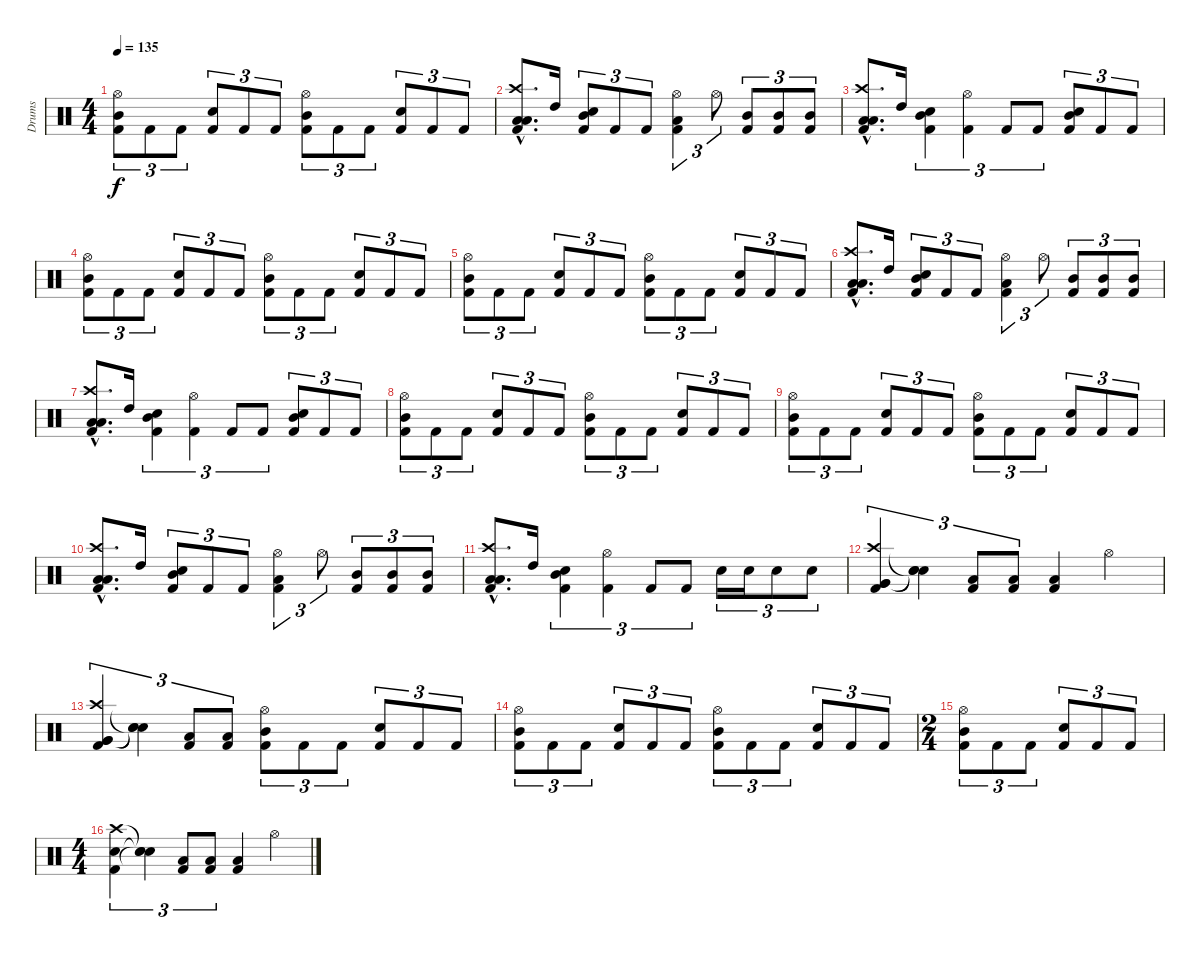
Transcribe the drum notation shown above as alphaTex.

\track ("Drums" "Drums") {instrument percussion}
\staff {score}
\articulation defaults
\ts (4 4)
\tempo 135
\clef neutral
\ks c
("Hi-Hat (open)" "Mid Tom (hit)" "Kick (hit) 2").8{tu (3 2) dy f} "Kick (hit) 2".8{tu (3 2)} "Kick (hit) 2".8{tu (3 2)} ("Snare (hit) 2" "Kick (hit) 2").8{tu (3 2)} "Kick (hit) 2".8{tu (3 2)} "Kick (hit) 2".8{tu (3 2)} ("Hi-Hat (open)" "Mid Tom (hit)" "Kick (hit) 2").8{tu (3 2)} "Kick (hit) 2".8{tu (3 2)} "Kick (hit) 2".8{tu (3 2)} ("Snare (hit) 2" "Kick (hit) 2").8{tu (3 2)} "Kick (hit) 2".8{tu (3 2)} "Kick (hit) 2".8{tu (3 2)} |
("Crash high (hit)"{hac} "Low Tom (hit)"{hac} "Low Tom (hit)"{hac} "Kick (hit) 2"{hac}).8{d} "High Tom (hit)".16 ("Mid Tom (hit)" "Snare (hit) 2" "Kick (hit) 2").8{tu (3 2)} "Kick (hit) 2".8{tu (3 2)} "Kick (hit) 2".8{tu (3 2)} ("Hi-Hat (open)" "Low Tom (hit)" "Kick (hit) 2").4{tu (3 2)} "Hi-Hat (open)".8{tu (3 2)} ("Mid Tom (hit)" "Kick (hit) 2").8{tu (3 2)} ("Mid Tom (hit)" "Kick (hit) 2").8{tu (3 2)} ("Mid Tom (hit)" "Kick (hit) 2").8{tu (3 2)} |
("Crash high (hit)"{hac} "Low Tom (hit)"{hac} "Low Tom (hit)"{hac} "Kick (hit) 2"{hac}).8{d} "High Tom (hit)".16 ("Mid Tom (hit)" "Snare (hit) 2" "Kick (hit) 2").4{tu (3 2)} ("Hi-Hat (open)" "Kick (hit) 2").4{tu (3 2)} "Kick (hit) 2".8{tu (3 2)} "Kick (hit) 2".8{tu (3 2)} ("Mid Tom (hit)" "Snare (hit) 2" "Kick (hit) 2").8{tu (3 2)} "Kick (hit) 2".8{tu (3 2)} "Kick (hit) 2".8{tu (3 2)} |
("Hi-Hat (open)" "Mid Tom (hit)" "Kick (hit) 2").8{tu (3 2)} "Kick (hit) 2".8{tu (3 2)} "Kick (hit) 2".8{tu (3 2)} ("Snare (hit) 2" "Kick (hit) 2").8{tu (3 2)} "Kick (hit) 2".8{tu (3 2)} "Kick (hit) 2".8{tu (3 2)} ("Hi-Hat (open)" "Mid Tom (hit)" "Kick (hit) 2").8{tu (3 2)} "Kick (hit) 2".8{tu (3 2)} "Kick (hit) 2".8{tu (3 2)} ("Snare (hit) 2" "Kick (hit) 2").8{tu (3 2)} "Kick (hit) 2".8{tu (3 2)} "Kick (hit) 2".8{tu (3 2)} |
("Hi-Hat (open)" "Mid Tom (hit)" "Kick (hit) 2").8{tu (3 2)} "Kick (hit) 2".8{tu (3 2)} "Kick (hit) 2".8{tu (3 2)} ("Snare (hit) 2" "Kick (hit) 2").8{tu (3 2)} "Kick (hit) 2".8{tu (3 2)} "Kick (hit) 2".8{tu (3 2)} ("Hi-Hat (open)" "Mid Tom (hit)" "Kick (hit) 2").8{tu (3 2)} "Kick (hit) 2".8{tu (3 2)} "Kick (hit) 2".8{tu (3 2)} ("Snare (hit) 2" "Kick (hit) 2").8{tu (3 2)} "Kick (hit) 2".8{tu (3 2)} "Kick (hit) 2".8{tu (3 2)} |
("Crash high (hit)"{hac} "Low Tom (hit)"{hac} "Low Tom (hit)"{hac} "Kick (hit) 2"{hac}).8{d} "High Tom (hit)".16 ("Mid Tom (hit)" "Snare (hit) 2" "Kick (hit) 2").8{tu (3 2)} "Kick (hit) 2".8{tu (3 2)} "Kick (hit) 2".8{tu (3 2)} ("Hi-Hat (open)" "Low Tom (hit)" "Kick (hit) 2").4{tu (3 2)} "Hi-Hat (open)".8{tu (3 2)} ("Mid Tom (hit)" "Kick (hit) 2").8{tu (3 2)} ("Mid Tom (hit)" "Kick (hit) 2").8{tu (3 2)} ("Mid Tom (hit)" "Kick (hit) 2").8{tu (3 2)} |
("Crash high (hit)"{hac} "Low Tom (hit)"{hac} "Low Tom (hit)"{hac} "Kick (hit) 2"{hac}).8{d} "High Tom (hit)".16 ("Mid Tom (hit)" "Snare (hit) 2" "Kick (hit) 2").4{tu (3 2)} ("Hi-Hat (open)" "Kick (hit) 2").4{tu (3 2)} "Kick (hit) 2".8{tu (3 2)} "Kick (hit) 2".8{tu (3 2)} ("Mid Tom (hit)" "Snare (hit) 2" "Kick (hit) 2").8{tu (3 2)} "Kick (hit) 2".8{tu (3 2)} "Kick (hit) 2".8{tu (3 2)} |
("Hi-Hat (open)" "Mid Tom (hit)" "Kick (hit) 2").8{tu (3 2)} "Kick (hit) 2".8{tu (3 2)} "Kick (hit) 2".8{tu (3 2)} ("Snare (hit) 2" "Kick (hit) 2").8{tu (3 2)} "Kick (hit) 2".8{tu (3 2)} "Kick (hit) 2".8{tu (3 2)} ("Hi-Hat (open)" "Mid Tom (hit)" "Kick (hit) 2").8{tu (3 2)} "Kick (hit) 2".8{tu (3 2)} "Kick (hit) 2".8{tu (3 2)} ("Snare (hit) 2" "Kick (hit) 2").8{tu (3 2)} "Kick (hit) 2".8{tu (3 2)} "Kick (hit) 2".8{tu (3 2)} |
("Hi-Hat (open)" "Mid Tom (hit)" "Kick (hit) 2").8{tu (3 2)} "Kick (hit) 2".8{tu (3 2)} "Kick (hit) 2".8{tu (3 2)} ("Snare (hit) 2" "Kick (hit) 2").8{tu (3 2)} "Kick (hit) 2".8{tu (3 2)} "Kick (hit) 2".8{tu (3 2)} ("Hi-Hat (open)" "Mid Tom (hit)" "Kick (hit) 2").8{tu (3 2)} "Kick (hit) 2".8{tu (3 2)} "Kick (hit) 2".8{tu (3 2)} ("Snare (hit) 2" "Kick (hit) 2").8{tu (3 2)} "Kick (hit) 2".8{tu (3 2)} "Kick (hit) 2".8{tu (3 2)} |
("Crash high (hit)"{hac} "Low Tom (hit)"{hac} "Low Tom (hit)"{hac} "Kick (hit) 2"{hac}).8{d} "High Tom (hit)".16 ("Mid Tom (hit)" "Snare (hit) 2" "Kick (hit) 2").8{tu (3 2)} "Kick (hit) 2".8{tu (3 2)} "Kick (hit) 2".8{tu (3 2)} ("Hi-Hat (open)" "Low Tom (hit)" "Kick (hit) 2").4{tu (3 2)} "Hi-Hat (open)".8{tu (3 2)} ("Mid Tom (hit)" "Kick (hit) 2").8{tu (3 2)} ("Mid Tom (hit)" "Kick (hit) 2").8{tu (3 2)} ("Mid Tom (hit)" "Kick (hit) 2").8{tu (3 2)} |
("Crash high (hit)"{hac} "Low Tom (hit)"{hac} "Low Tom (hit)"{hac} "Kick (hit) 2"{hac}).8{d} "High Tom (hit)".16 ("Mid Tom (hit)" "Snare (hit) 2" "Kick (hit) 2").4{tu (3 2)} ("Hi-Hat (open)" "Kick (hit) 2").4{tu (3 2)} "Kick (hit) 2".8{tu (3 2)} "Kick (hit) 2".8{tu (3 2)} "Snare (hit) 2".16{tu (3 2)} "Snare (hit) 2".16{tu (3 2)} "Snare (hit) 2".8{tu (3 2)} "Snare (hit) 2".8{tu (3 2)} |
("Crash high (hit)" "Very Low Tom (hit)" "Very Low Tom (hit)" "Kick (hit) 2").4{tu (3 2)} ("Snare (hit)"{t} "Snare (hit)"{t} "Snare (hit)"{t}).4{tu (3 2)} ("Low Tom (hit)" "Kick (hit) 2").8{tu (3 2)} ("Low Tom (hit)" "Kick (hit) 2").8{tu (3 2)} ("Low Tom (hit)" "Kick (hit) 2").4 "Hi-Hat (open)".4 |
("Crash high (hit)" "Very Low Tom (hit)" "Very Low Tom (hit)" "Kick (hit) 2").4{tu (3 2)} ("Snare (hit)"{t} "Snare (hit)"{t} "Snare (hit)"{t}).4{tu (3 2)} ("Low Tom (hit)" "Kick (hit) 2").8{tu (3 2)} ("Low Tom (hit)" "Kick (hit) 2").8{tu (3 2)} ("Hi-Hat (open)" "Mid Tom (hit)" "Kick (hit) 2").8{tu (3 2)} "Kick (hit) 2".8{tu (3 2)} "Kick (hit) 2".8{tu (3 2)} ("Snare (hit) 2" "Kick (hit) 2").8{tu (3 2)} "Kick (hit) 2".8{tu (3 2)} "Kick (hit) 2".8{tu (3 2)} |
("Hi-Hat (open)" "Mid Tom (hit)" "Kick (hit) 2").8{tu (3 2)} "Kick (hit) 2".8{tu (3 2)} "Kick (hit) 2".8{tu (3 2)} ("Snare (hit) 2" "Kick (hit) 2").8{tu (3 2)} "Kick (hit) 2".8{tu (3 2)} "Kick (hit) 2".8{tu (3 2)} ("Hi-Hat (open)" "Mid Tom (hit)" "Kick (hit) 2").8{tu (3 2)} "Kick (hit) 2".8{tu (3 2)} "Kick (hit) 2".8{tu (3 2)} ("Snare (hit) 2" "Kick (hit) 2").8{tu (3 2)} "Kick (hit) 2".8{tu (3 2)} "Kick (hit) 2".8{tu (3 2)} |
\ts (2 4)
("Hi-Hat (open)" "Mid Tom (hit)" "Kick (hit) 2").8{tu (3 2)} "Kick (hit) 2".8{tu (3 2)} "Kick (hit) 2".8{tu (3 2)} ("Snare (hit) 2" "Kick (hit) 2").8{tu (3 2)} "Kick (hit) 2".8{tu (3 2)} "Kick (hit) 2".8{tu (3 2)} |
\ts (4 4)
("Crash high (hit)" "Snare (hit) 2" "Kick (hit) 2").4{tu (3 2)} ("Snare (hit)"{t} "Snare (hit)"{t} "Snare (hit)"{t}).4{tu (3 2)} ("Low Tom (hit)" "Kick (hit) 2").8{tu (3 2)} ("Low Tom (hit)" "Kick (hit) 2").8{tu (3 2)} ("Low Tom (hit)" "Kick (hit) 2").4 "Hi-Hat (open)".4
